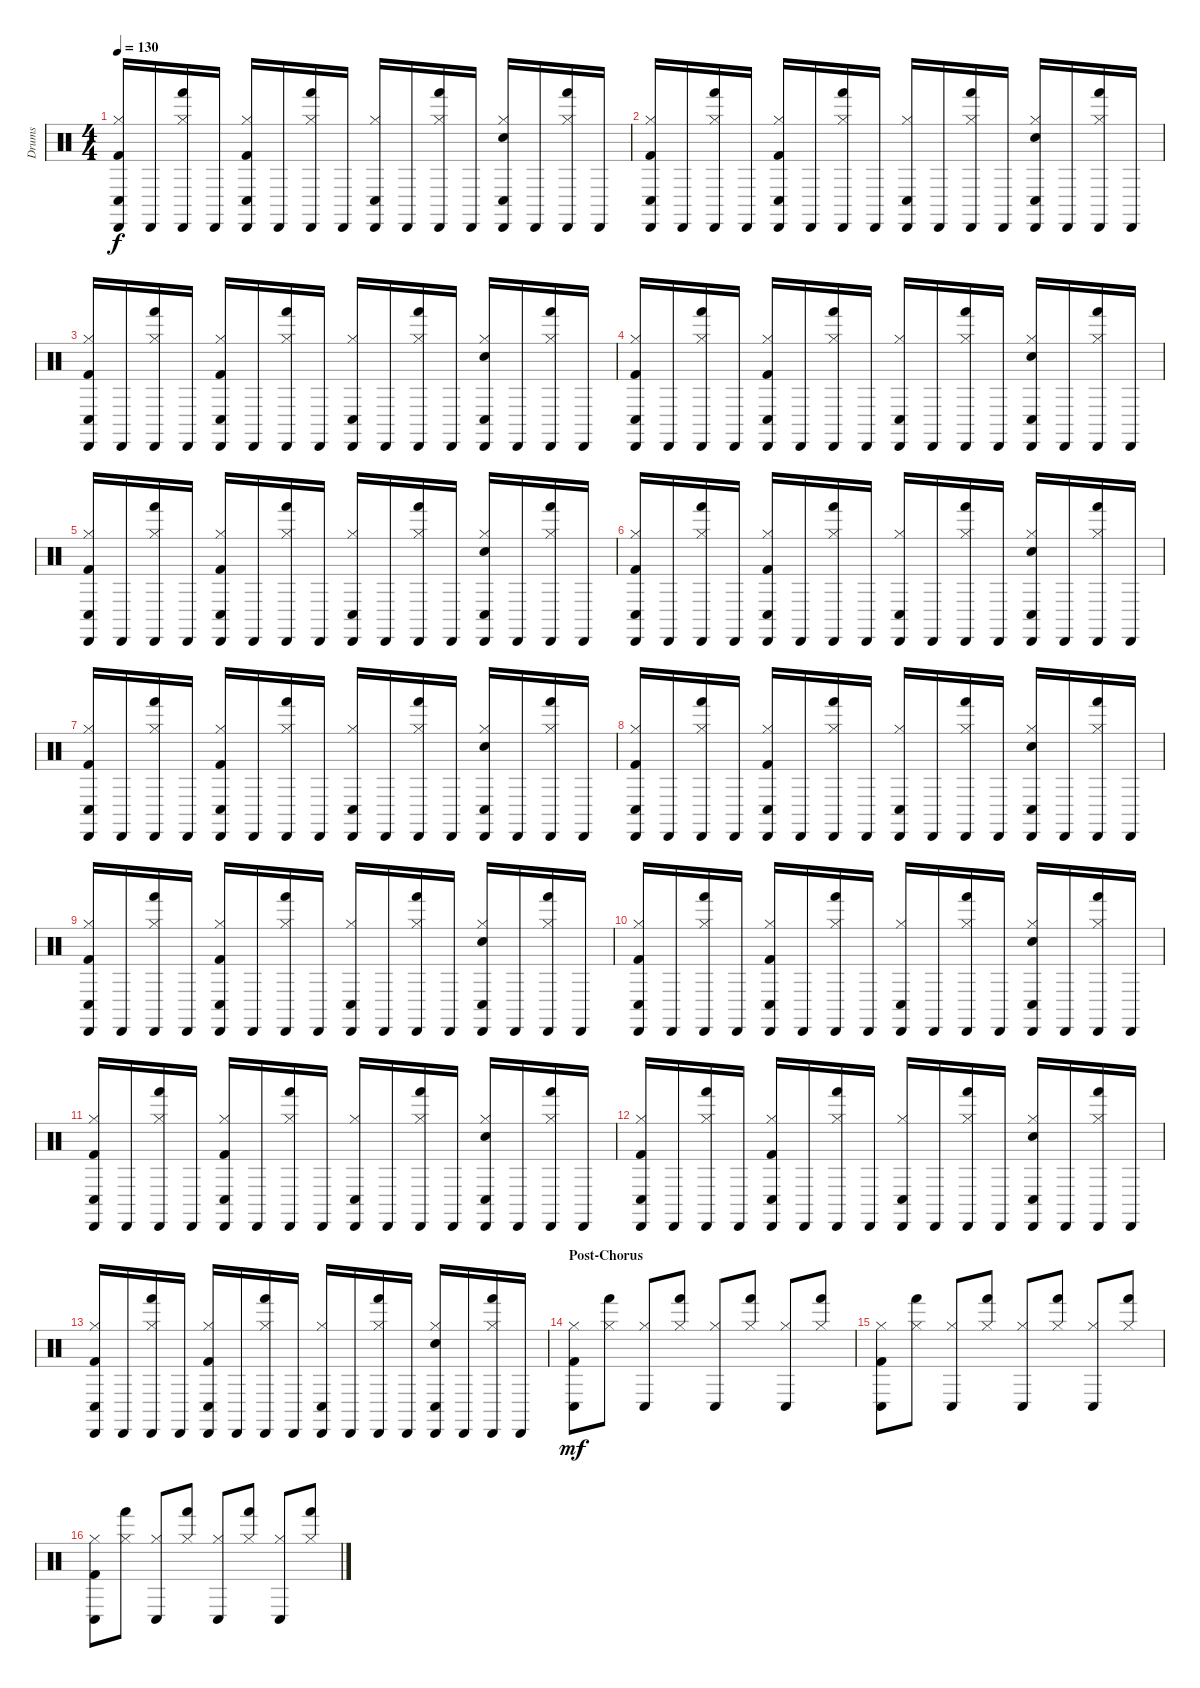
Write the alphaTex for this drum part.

\track ("Drums" "Drums") {instrument percussion}
\staff {score}
\articulation defaults
\ts (4 4)
\tempo 130
\clef neutral
\ks c
("Kick (hit) 2" "Cabasa (hit)" "Conga low (hit)" "Hi-Hat (closed)").16{dy f} "Cabasa (hit)".16 ("Hand (hit)" "Hi-Hat (closed)" "Cabasa (hit)").16 "Cabasa (hit)".16 ("Cabasa (hit)" "Hi-Hat (closed)" "Kick (hit) 2" "Conga low (hit)").16 "Cabasa (hit)".16 ("Hand (hit)" "Cabasa (hit)" "Hi-Hat (closed)").16 "Cabasa (hit)".16 ("Hi-Hat (closed)" "Conga low (hit)" "Cabasa (hit)").16 "Cabasa (hit)".16 ("Hand (hit)" "Cabasa (hit)" "Hi-Hat (closed)").16 "Cabasa (hit)".16 ("Hand Clap (hit)" "Cabasa (hit)" "Hi-Hat (closed)" "Conga low (hit)").16 "Cabasa (hit)".16 ("Cabasa (hit)" "Hi-Hat (closed)" "Hand (hit)").16 "Cabasa (hit)".16 |
("Kick (hit) 2" "Cabasa (hit)" "Conga low (hit)" "Hi-Hat (closed)").16 "Cabasa (hit)".16 ("Hand (hit)" "Hi-Hat (closed)" "Cabasa (hit)").16 "Cabasa (hit)".16 ("Cabasa (hit)" "Hi-Hat (closed)" "Kick (hit) 2" "Conga low (hit)").16 "Cabasa (hit)".16 ("Hand (hit)" "Cabasa (hit)" "Hi-Hat (closed)").16 "Cabasa (hit)".16 ("Hi-Hat (closed)" "Conga low (hit)" "Cabasa (hit)").16 "Cabasa (hit)".16 ("Hand (hit)" "Cabasa (hit)" "Hi-Hat (closed)").16 "Cabasa (hit)".16 ("Hand Clap (hit)" "Cabasa (hit)" "Hi-Hat (closed)" "Conga low (hit)").16 "Cabasa (hit)".16 ("Cabasa (hit)" "Hi-Hat (closed)" "Hand (hit)").16 "Cabasa (hit)".16 |
("Kick (hit) 2" "Cabasa (hit)" "Conga low (hit)" "Hi-Hat (closed)").16 "Cabasa (hit)".16 ("Hand (hit)" "Hi-Hat (closed)" "Cabasa (hit)").16 "Cabasa (hit)".16 ("Cabasa (hit)" "Hi-Hat (closed)" "Kick (hit) 2" "Conga low (hit)").16 "Cabasa (hit)".16 ("Hand (hit)" "Cabasa (hit)" "Hi-Hat (closed)").16 "Cabasa (hit)".16 ("Hi-Hat (closed)" "Conga low (hit)" "Cabasa (hit)").16 "Cabasa (hit)".16 ("Hand (hit)" "Cabasa (hit)" "Hi-Hat (closed)").16 "Cabasa (hit)".16 ("Hand Clap (hit)" "Cabasa (hit)" "Hi-Hat (closed)" "Conga low (hit)").16 "Cabasa (hit)".16 ("Cabasa (hit)" "Hi-Hat (closed)" "Hand (hit)").16 "Cabasa (hit)".16 |
("Kick (hit) 2" "Cabasa (hit)" "Conga low (hit)" "Hi-Hat (closed)").16 "Cabasa (hit)".16 ("Hand (hit)" "Hi-Hat (closed)" "Cabasa (hit)").16 "Cabasa (hit)".16 ("Cabasa (hit)" "Hi-Hat (closed)" "Kick (hit) 2" "Conga low (hit)").16 "Cabasa (hit)".16 ("Hand (hit)" "Cabasa (hit)" "Hi-Hat (closed)").16 "Cabasa (hit)".16 ("Hi-Hat (closed)" "Conga low (hit)" "Cabasa (hit)").16 "Cabasa (hit)".16 ("Hand (hit)" "Cabasa (hit)" "Hi-Hat (closed)").16 "Cabasa (hit)".16 ("Hand Clap (hit)" "Cabasa (hit)" "Hi-Hat (closed)" "Conga low (hit)").16 "Cabasa (hit)".16 ("Cabasa (hit)" "Hi-Hat (closed)" "Hand (hit)").16 "Cabasa (hit)".16 |
("Kick (hit) 2" "Cabasa (hit)" "Conga low (hit)" "Hi-Hat (closed)").16 "Cabasa (hit)".16 ("Hand (hit)" "Hi-Hat (closed)" "Cabasa (hit)").16 "Cabasa (hit)".16 ("Cabasa (hit)" "Hi-Hat (closed)" "Kick (hit) 2" "Conga low (hit)").16 "Cabasa (hit)".16 ("Hand (hit)" "Cabasa (hit)" "Hi-Hat (closed)").16 "Cabasa (hit)".16 ("Hi-Hat (closed)" "Conga low (hit)" "Cabasa (hit)").16 "Cabasa (hit)".16 ("Hand (hit)" "Cabasa (hit)" "Hi-Hat (closed)").16 "Cabasa (hit)".16 ("Hand Clap (hit)" "Cabasa (hit)" "Hi-Hat (closed)" "Conga low (hit)").16 "Cabasa (hit)".16 ("Cabasa (hit)" "Hi-Hat (closed)" "Hand (hit)").16 "Cabasa (hit)".16 |
("Kick (hit) 2" "Cabasa (hit)" "Conga low (hit)" "Hi-Hat (closed)").16 "Cabasa (hit)".16 ("Hand (hit)" "Hi-Hat (closed)" "Cabasa (hit)").16 "Cabasa (hit)".16 ("Cabasa (hit)" "Hi-Hat (closed)" "Kick (hit) 2" "Conga low (hit)").16 "Cabasa (hit)".16 ("Hand (hit)" "Cabasa (hit)" "Hi-Hat (closed)").16 "Cabasa (hit)".16 ("Hi-Hat (closed)" "Conga low (hit)" "Cabasa (hit)").16 "Cabasa (hit)".16 ("Hand (hit)" "Cabasa (hit)" "Hi-Hat (closed)").16 "Cabasa (hit)".16 ("Hand Clap (hit)" "Cabasa (hit)" "Hi-Hat (closed)" "Conga low (hit)").16 "Cabasa (hit)".16 ("Cabasa (hit)" "Hi-Hat (closed)" "Hand (hit)").16 "Cabasa (hit)".16 |
("Kick (hit) 2" "Cabasa (hit)" "Conga low (hit)" "Hi-Hat (closed)").16 "Cabasa (hit)".16 ("Hand (hit)" "Hi-Hat (closed)" "Cabasa (hit)").16 "Cabasa (hit)".16 ("Cabasa (hit)" "Hi-Hat (closed)" "Kick (hit) 2" "Conga low (hit)").16 "Cabasa (hit)".16 ("Hand (hit)" "Cabasa (hit)" "Hi-Hat (closed)").16 "Cabasa (hit)".16 ("Hi-Hat (closed)" "Conga low (hit)" "Cabasa (hit)").16 "Cabasa (hit)".16 ("Hand (hit)" "Cabasa (hit)" "Hi-Hat (closed)").16 "Cabasa (hit)".16 ("Hand Clap (hit)" "Cabasa (hit)" "Hi-Hat (closed)" "Conga low (hit)").16 "Cabasa (hit)".16 ("Cabasa (hit)" "Hi-Hat (closed)" "Hand (hit)").16 "Cabasa (hit)".16 |
("Kick (hit) 2" "Cabasa (hit)" "Conga low (hit)" "Hi-Hat (closed)").16 "Cabasa (hit)".16 ("Hand (hit)" "Hi-Hat (closed)" "Cabasa (hit)").16 "Cabasa (hit)".16 ("Cabasa (hit)" "Hi-Hat (closed)" "Kick (hit) 2" "Conga low (hit)").16 "Cabasa (hit)".16 ("Hand (hit)" "Cabasa (hit)" "Hi-Hat (closed)").16 "Cabasa (hit)".16 ("Hi-Hat (closed)" "Conga low (hit)" "Cabasa (hit)").16 "Cabasa (hit)".16 ("Hand (hit)" "Cabasa (hit)" "Hi-Hat (closed)").16 "Cabasa (hit)".16 ("Hand Clap (hit)" "Cabasa (hit)" "Hi-Hat (closed)" "Conga low (hit)").16 "Cabasa (hit)".16 ("Cabasa (hit)" "Hi-Hat (closed)" "Hand (hit)").16 "Cabasa (hit)".16 |
("Kick (hit) 2" "Cabasa (hit)" "Conga low (hit)" "Hi-Hat (closed)").16 "Cabasa (hit)".16 ("Hand (hit)" "Hi-Hat (closed)" "Cabasa (hit)").16 "Cabasa (hit)".16 ("Cabasa (hit)" "Hi-Hat (closed)" "Kick (hit) 2" "Conga low (hit)").16 "Cabasa (hit)".16 ("Hand (hit)" "Cabasa (hit)" "Hi-Hat (closed)").16 "Cabasa (hit)".16 ("Hi-Hat (closed)" "Conga low (hit)" "Cabasa (hit)").16 "Cabasa (hit)".16 ("Hand (hit)" "Cabasa (hit)" "Hi-Hat (closed)").16 "Cabasa (hit)".16 ("Hand Clap (hit)" "Cabasa (hit)" "Hi-Hat (closed)" "Conga low (hit)").16 "Cabasa (hit)".16 ("Cabasa (hit)" "Hi-Hat (closed)" "Hand (hit)").16 "Cabasa (hit)".16 |
("Kick (hit) 2" "Cabasa (hit)" "Conga low (hit)" "Hi-Hat (closed)").16 "Cabasa (hit)".16 ("Hand (hit)" "Hi-Hat (closed)" "Cabasa (hit)").16 "Cabasa (hit)".16 ("Cabasa (hit)" "Hi-Hat (closed)" "Kick (hit) 2" "Conga low (hit)").16 "Cabasa (hit)".16 ("Hand (hit)" "Cabasa (hit)" "Hi-Hat (closed)").16 "Cabasa (hit)".16 ("Hi-Hat (closed)" "Conga low (hit)" "Cabasa (hit)").16 "Cabasa (hit)".16 ("Hand (hit)" "Cabasa (hit)" "Hi-Hat (closed)").16 "Cabasa (hit)".16 ("Hand Clap (hit)" "Cabasa (hit)" "Hi-Hat (closed)" "Conga low (hit)").16 "Cabasa (hit)".16 ("Cabasa (hit)" "Hi-Hat (closed)" "Hand (hit)").16 "Cabasa (hit)".16 |
("Kick (hit) 2" "Cabasa (hit)" "Conga low (hit)" "Hi-Hat (closed)").16 "Cabasa (hit)".16 ("Hand (hit)" "Hi-Hat (closed)" "Cabasa (hit)").16 "Cabasa (hit)".16 ("Cabasa (hit)" "Hi-Hat (closed)" "Kick (hit) 2" "Conga low (hit)").16 "Cabasa (hit)".16 ("Hand (hit)" "Cabasa (hit)" "Hi-Hat (closed)").16 "Cabasa (hit)".16 ("Hi-Hat (closed)" "Conga low (hit)" "Cabasa (hit)").16 "Cabasa (hit)".16 ("Hand (hit)" "Cabasa (hit)" "Hi-Hat (closed)").16 "Cabasa (hit)".16 ("Hand Clap (hit)" "Cabasa (hit)" "Hi-Hat (closed)" "Conga low (hit)").16 "Cabasa (hit)".16 ("Cabasa (hit)" "Hi-Hat (closed)" "Hand (hit)").16 "Cabasa (hit)".16 |
("Kick (hit) 2" "Cabasa (hit)" "Conga low (hit)" "Hi-Hat (closed)").16 "Cabasa (hit)".16 ("Hand (hit)" "Hi-Hat (closed)" "Cabasa (hit)").16 "Cabasa (hit)".16 ("Cabasa (hit)" "Hi-Hat (closed)" "Kick (hit) 2" "Conga low (hit)").16 "Cabasa (hit)".16 ("Hand (hit)" "Cabasa (hit)" "Hi-Hat (closed)").16 "Cabasa (hit)".16 ("Hi-Hat (closed)" "Conga low (hit)" "Cabasa (hit)").16 "Cabasa (hit)".16 ("Hand (hit)" "Cabasa (hit)" "Hi-Hat (closed)").16 "Cabasa (hit)".16 ("Hand Clap (hit)" "Cabasa (hit)" "Hi-Hat (closed)" "Conga low (hit)").16 "Cabasa (hit)".16 ("Cabasa (hit)" "Hi-Hat (closed)" "Hand (hit)").16 "Cabasa (hit)".16 |
("Kick (hit) 2" "Cabasa (hit)" "Conga low (hit)" "Hi-Hat (closed)").16 "Cabasa (hit)".16 ("Hand (hit)" "Hi-Hat (closed)" "Cabasa (hit)").16 "Cabasa (hit)".16 ("Cabasa (hit)" "Hi-Hat (closed)" "Kick (hit) 2" "Conga low (hit)").16 "Cabasa (hit)".16 ("Hand (hit)" "Cabasa (hit)" "Hi-Hat (closed)").16 "Cabasa (hit)".16 ("Hi-Hat (closed)" "Conga low (hit)" "Cabasa (hit)").16 "Cabasa (hit)".16 ("Hand (hit)" "Cabasa (hit)" "Hi-Hat (closed)").16 "Cabasa (hit)".16 ("Hand Clap (hit)" "Cabasa (hit)" "Hi-Hat (closed)" "Conga low (hit)").16 "Cabasa (hit)".16 ("Cabasa (hit)" "Hi-Hat (closed)" "Hand (hit)").16 "Cabasa (hit)".16 |
\section ("" "Post-Chorus")
("Kick (hit) 2" "Conga low (hit)" "Hi-Hat (closed)").8{dy mf} ("Hand (hit)" "Hi-Hat (closed)").8 ("Hi-Hat (closed)" "Conga low (hit)").8 ("Hand (hit)" "Hi-Hat (closed)").8 ("Conga low (hit)" "Hi-Hat (closed)").8 ("Hi-Hat (closed)" "Hand (hit)").8 ("Hi-Hat (closed)" "Conga low (hit)").8 ("Hi-Hat (closed)" "Hand (hit)").8 |
("Kick (hit) 2" "Conga low (hit)" "Hi-Hat (closed)").8 ("Hand (hit)" "Hi-Hat (closed)").8 ("Hi-Hat (closed)" "Conga low (hit)").8 ("Hand (hit)" "Hi-Hat (closed)").8 ("Conga low (hit)" "Hi-Hat (closed)").8 ("Hi-Hat (closed)" "Hand (hit)").8 ("Hi-Hat (closed)" "Conga low (hit)").8 ("Hi-Hat (closed)" "Hand (hit)").8 |
("Kick (hit) 2" "Conga low (hit)" "Hi-Hat (closed)").8 ("Hand (hit)" "Hi-Hat (closed)").8 ("Hi-Hat (closed)" "Conga low (hit)").8 ("Hand (hit)" "Hi-Hat (closed)").8 ("Conga low (hit)" "Hi-Hat (closed)").8 ("Hi-Hat (closed)" "Hand (hit)").8 ("Hi-Hat (closed)" "Conga low (hit)").8 ("Hi-Hat (closed)" "Hand (hit)").8
